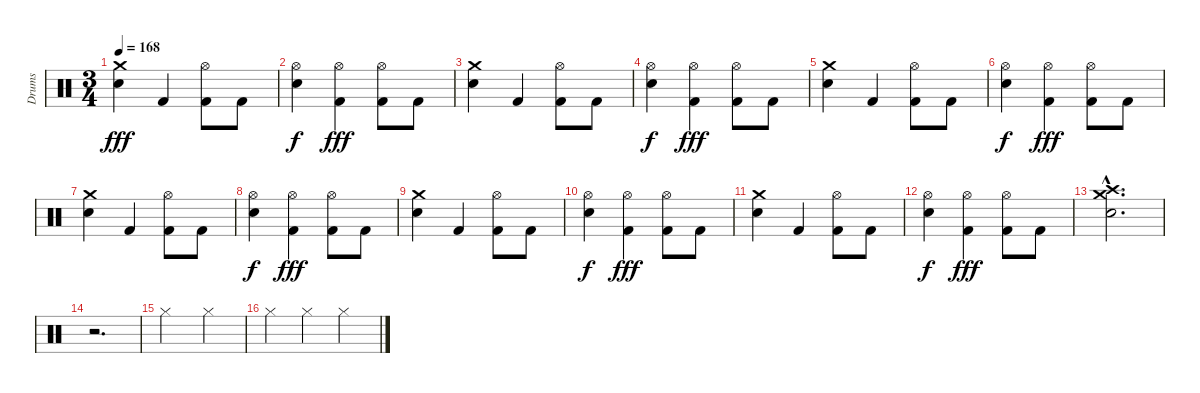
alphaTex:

\track ("Drums" "Drums") {instrument percussion}
\staff {score}
\articulation defaults
\ts (3 4)
\tempo 168
\clef neutral
\ks c
("Crash medium (hit)" "Electric Snare (hit)").4{dy fff} "Kick (hit) 2".4 ("Hi-Hat (open)" "Kick (hit) 2").8 "Kick (hit) 2".8 |
("Hi-Hat (open)" "Electric Snare (hit)").4{dy f} ("Hi-Hat (open)" "Kick (hit) 2").4{dy fff} ("Hi-Hat (open)" "Kick (hit) 2").8 "Kick (hit) 2".8 |
("Crash medium (hit)" "Electric Snare (hit)").4 "Kick (hit) 2".4 ("Hi-Hat (open)" "Kick (hit) 2").8 "Kick (hit) 2".8 |
("Hi-Hat (open)" "Electric Snare (hit)").4{dy f} ("Hi-Hat (open)" "Kick (hit) 2").4{dy fff} ("Hi-Hat (open)" "Kick (hit) 2").8 "Kick (hit) 2".8 |
("Crash medium (hit)" "Electric Snare (hit)").4 "Kick (hit) 2".4 ("Hi-Hat (open)" "Kick (hit) 2").8 "Kick (hit) 2".8 |
("Hi-Hat (open)" "Electric Snare (hit)").4{dy f} ("Hi-Hat (open)" "Kick (hit) 2").4{dy fff} ("Hi-Hat (open)" "Kick (hit) 2").8 "Kick (hit) 2".8 |
("Crash medium (hit)" "Electric Snare (hit)").4 "Kick (hit) 2".4 ("Hi-Hat (open)" "Kick (hit) 2").8 "Kick (hit) 2".8 |
("Hi-Hat (open)" "Electric Snare (hit)").4{dy f} ("Hi-Hat (open)" "Kick (hit) 2").4{dy fff} ("Hi-Hat (open)" "Kick (hit) 2").8 "Kick (hit) 2".8 |
("Crash medium (hit)" "Electric Snare (hit)").4 "Kick (hit) 2".4 ("Hi-Hat (open)" "Kick (hit) 2").8 "Kick (hit) 2".8 |
("Hi-Hat (open)" "Electric Snare (hit)").4{dy f} ("Hi-Hat (open)" "Kick (hit) 2").4{dy fff} ("Hi-Hat (open)" "Kick (hit) 2").8 "Kick (hit) 2".8 |
("Crash medium (hit)" "Electric Snare (hit)").4 "Kick (hit) 2".4 ("Hi-Hat (open)" "Kick (hit) 2").8 "Kick (hit) 2".8 |
("Hi-Hat (open)" "Electric Snare (hit)").4{dy f} ("Hi-Hat (open)" "Kick (hit) 2").4{dy fff} ("Hi-Hat (open)" "Kick (hit) 2").8 "Kick (hit) 2".8 |
("Crash high (hit)"{hac} "Crash medium (hit)"{hac} "Electric Snare (hit)"{hac}).2{d} |
r.2{d} |
"Hi-Hat (closed)".2 "Hi-Hat (closed)".4 |
"Hi-Hat (closed)".4 "Hi-Hat (closed)".4 "Hi-Hat (closed)".4
